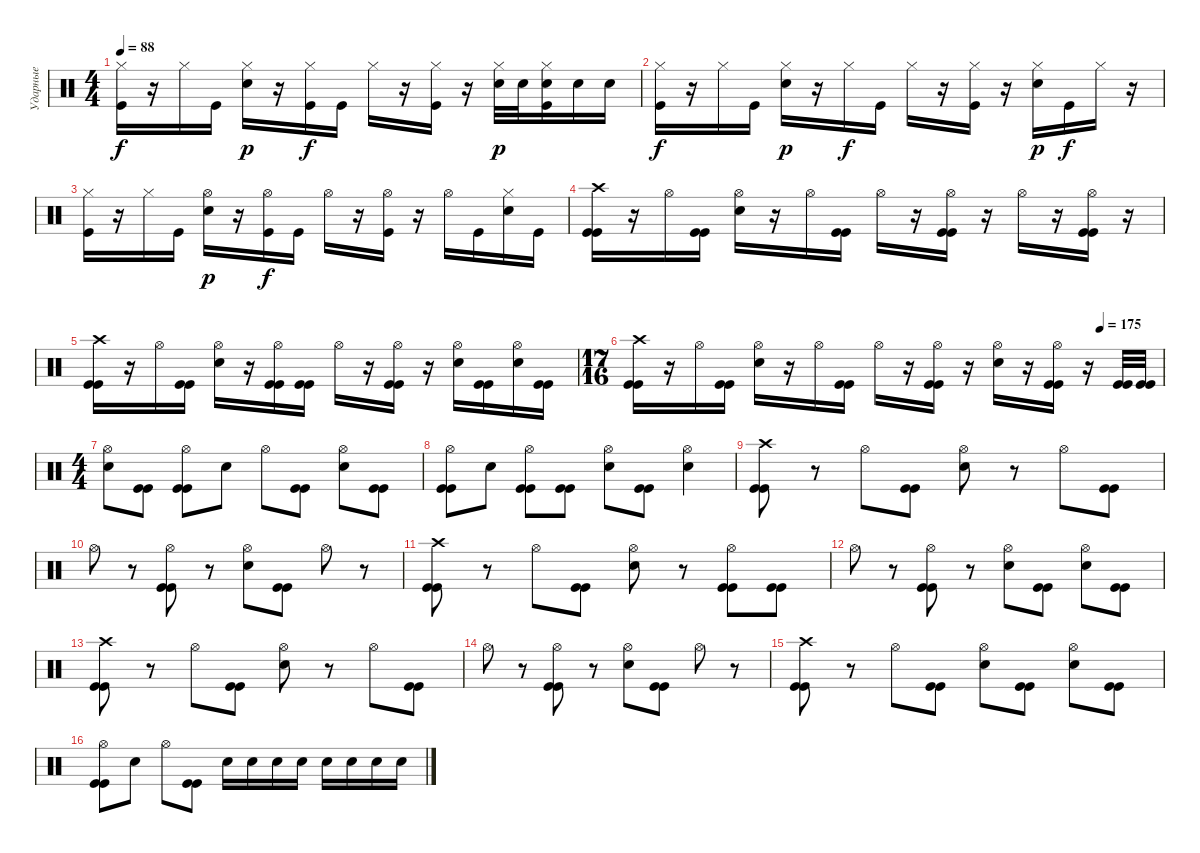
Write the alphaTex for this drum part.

\track ("Ударные" "Ударные") {instrument percussion}
\staff {score}
\articulation defaults
\ts (4 4)
\tempo 88
\clef neutral
\ks c
("Hi-Hat (closed)" "Kick (hit)").16{dy f} r.16 "Hi-Hat (closed)".16 "Kick (hit)".16 ("Hi-Hat (closed)" "Snare (hit) 2").16{dy p} r.16 ("Hi-Hat (closed)" "Kick (hit)").16{dy f} "Kick (hit)".16 "Hi-Hat (closed)".16 r.16 ("Hi-Hat (closed)" "Kick (hit)").16 r.16 ("Hi-Hat (closed)" "Snare (hit) 2").32{dy p} "Snare (hit) 2".32 ("Hi-Hat (closed)" "Snare (hit) 2" "Kick (hit)").16 "Snare (hit) 2".16 "Snare (hit) 2".16 |
("Hi-Hat (closed)" "Kick (hit)").16{dy f} r.16 "Hi-Hat (closed)".16 "Kick (hit)".16 ("Hi-Hat (closed)" "Snare (hit) 2").16{dy p} r.16 "Hi-Hat (closed)".16{dy f} "Kick (hit)".16 "Hi-Hat (closed)".16 r.16 ("Hi-Hat (closed)" "Kick (hit)").16 r.16 ("Hi-Hat (closed)" "Snare (hit) 2").16{dy p} "Kick (hit)".16{dy f} "Hi-Hat (closed)".16 r.16 |
("Hi-Hat (closed)" "Kick (hit)").16 r.16 "Hi-Hat (closed)".16 "Kick (hit)".16 ("Hi-Hat (open)" "Snare (hit) 2").16{dy p} r.16 ("Hi-Hat (open)" "Kick (hit)").16{dy f} "Kick (hit)".16 "Hi-Hat (open)".16 r.16 ("Hi-Hat (open)" "Kick (hit)").16 r.16 "Hi-Hat (open)".16 "Kick (hit)".16 ("Hi-Hat (closed)" "Snare (hit) 2").16 "Kick (hit)".16 |
("Crash high (hit)" "Kick (hit)" "Kick (hit)").16 r.16 "Hi-Hat (open)".16 ("Kick (hit)" "Kick (hit)").16 ("Hi-Hat (open)" "Snare (hit) 2").16 r.16 "Hi-Hat (open)".16 ("Kick (hit)" "Kick (hit)").16 "Hi-Hat (open)".16 r.16 ("Hi-Hat (open)" "Kick (hit)" "Kick (hit)").16 r.16 "Hi-Hat (open)".16 r.16 ("Hi-Hat (open)" "Kick (hit)" "Kick (hit)").16 r.16 |
("Crash high (hit)" "Kick (hit)" "Kick (hit)").16 r.16 "Hi-Hat (open)".16 ("Kick (hit)" "Kick (hit)").16 ("Hi-Hat (open)" "Snare (hit) 2").16 r.16 ("Hi-Hat (open)" "Kick (hit)" "Kick (hit)").16 ("Kick (hit)" "Kick (hit)").16 "Hi-Hat (open)".16 r.16 ("Hi-Hat (open)" "Kick (hit)" "Kick (hit)").16 r.16 ("Hi-Hat (open)" "Snare (hit) 2").16 ("Kick (hit)" "Kick (hit)").16 ("Hi-Hat (open)" "Snare (hit) 2").16 ("Kick (hit)" "Kick (hit)").16 |
\ts (17 16)
\tempo (175 0.8823529411764706)
("Crash high (hit)" "Kick (hit)" "Kick (hit)").16 r.16 "Hi-Hat (open)".16 ("Kick (hit)" "Kick (hit)").16 ("Hi-Hat (open)" "Snare (hit) 2").16 r.16 "Hi-Hat (open)".16 ("Kick (hit)" "Kick (hit)").16 "Hi-Hat (open)".16 r.16 ("Hi-Hat (open)" "Kick (hit)" "Kick (hit)").16 r.16 ("Hi-Hat (open)" "Snare (hit) 2").16 r.16 ("Hi-Hat (open)" "Kick (hit)" "Kick (hit)").16 r.16 ("Kick (hit)" "Kick (hit)").32 ("Kick (hit)" "Kick (hit)").32 |
\ts (4 4)
("Hi-Hat (open)" "Snare (hit) 2").8 ("Kick (hit)" "Kick (hit)").8 ("Hi-Hat (open)" "Kick (hit)" "Kick (hit)").8 "Snare (hit) 2".8 "Hi-Hat (open)".8 ("Kick (hit)" "Kick (hit)").8 ("Hi-Hat (open)" "Snare (hit) 2").8 ("Kick (hit)" "Kick (hit)").8 |
("Hi-Hat (open)" "Kick (hit)" "Kick (hit)").8 "Snare (hit) 2".8 ("Hi-Hat (open)" "Kick (hit)" "Kick (hit)").8 ("Kick (hit)" "Kick (hit)").8 ("Hi-Hat (open)" "Snare (hit) 2").8 ("Kick (hit)" "Kick (hit)").8 ("Hi-Hat (open)" "Snare (hit) 2").4 |
("Crash high (hit)" "Kick (hit)" "Kick (hit)").8 r.8 "Hi-Hat (open)".8 ("Kick (hit)" "Kick (hit)").8 ("Hi-Hat (open)" "Snare (hit) 2").8 r.8 "Hi-Hat (open)".8 ("Kick (hit)" "Kick (hit)").8 |
"Hi-Hat (open)".8 r.8 ("Hi-Hat (open)" "Kick (hit)" "Kick (hit)").8 r.8 ("Hi-Hat (open)" "Snare (hit) 2").8 ("Kick (hit)" "Kick (hit)").8 "Hi-Hat (open)".8 r.8 |
("Crash high (hit)" "Kick (hit)" "Kick (hit)").8 r.8 "Hi-Hat (open)".8 ("Kick (hit)" "Kick (hit)").8 ("Hi-Hat (open)" "Snare (hit) 2").8 r.8 ("Hi-Hat (open)" "Kick (hit)" "Kick (hit)").8 ("Kick (hit)" "Kick (hit)").8 |
"Hi-Hat (open)".8 r.8 ("Hi-Hat (open)" "Kick (hit)" "Kick (hit)").8 r.8 ("Hi-Hat (open)" "Snare (hit) 2").8 ("Kick (hit)" "Kick (hit)").8 ("Hi-Hat (open)" "Snare (hit) 2").8 ("Kick (hit)" "Kick (hit)").8 |
("Crash high (hit)" "Kick (hit)" "Kick (hit)").8 r.8 "Hi-Hat (open)".8 ("Kick (hit)" "Kick (hit)").8 ("Hi-Hat (open)" "Snare (hit) 2").8 r.8 "Hi-Hat (open)".8 ("Kick (hit)" "Kick (hit)").8 |
"Hi-Hat (open)".8 r.8 ("Hi-Hat (open)" "Kick (hit)" "Kick (hit)").8 r.8 ("Hi-Hat (open)" "Snare (hit) 2").8 ("Kick (hit)" "Kick (hit)").8 "Hi-Hat (open)".8 r.8 |
("Crash high (hit)" "Kick (hit)" "Kick (hit)").8 r.8 "Hi-Hat (open)".8 ("Kick (hit)" "Kick (hit)").8 ("Hi-Hat (open)" "Snare (hit) 2").8 ("Kick (hit)" "Kick (hit)").8 ("Hi-Hat (open)" "Snare (hit) 2").8 ("Kick (hit)" "Kick (hit)").8 |
("Hi-Hat (open)" "Kick (hit)" "Kick (hit)").8 "Snare (hit) 2".8 "Hi-Hat (open)".8 ("Kick (hit)" "Kick (hit)").8 "Snare (hit) 2".16 "Snare (hit) 2".16 "Snare (hit) 2".16 "Snare (hit) 2".16 "Snare (hit) 2".16 "Snare (hit) 2".16 "Snare (hit) 2".16 "Snare (hit) 2".16
